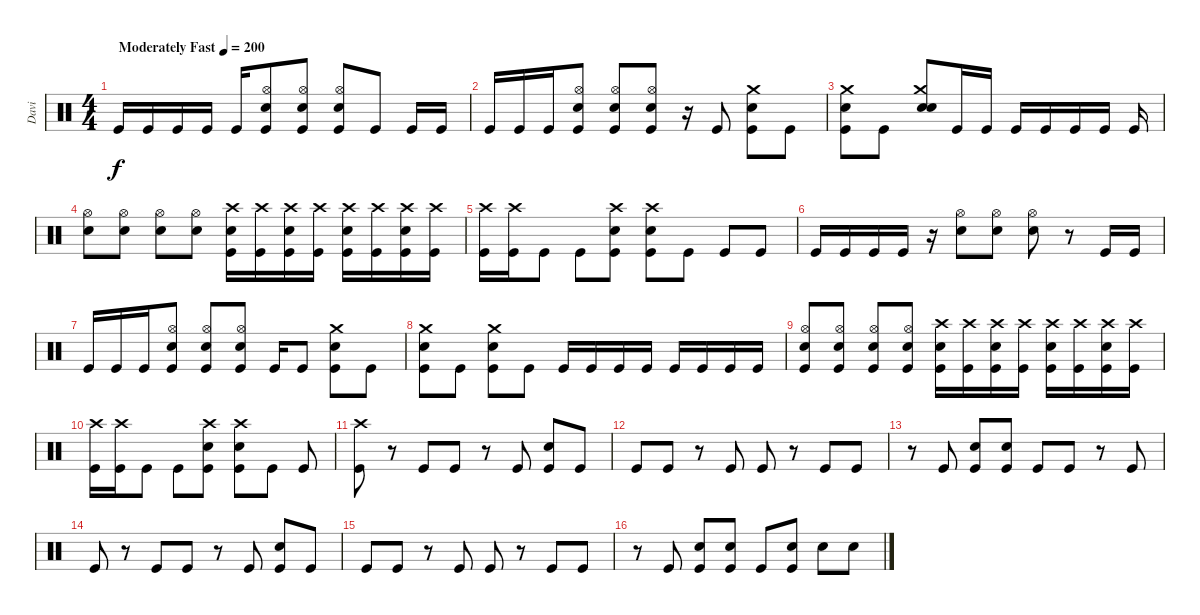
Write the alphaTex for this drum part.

\track ("Davi" "Davi") {instrument percussion}
\staff {score}
\articulation defaults
\ts (4 4)
\tempo (200 "Moderately Fast")
\clef neutral
\ks c "Kick (hit)".16{dy f} "Kick (hit)".16 "Kick (hit)".16 "Kick (hit)".16 "Kick (hit)".16
("Hi-Hat (open)" "Electric Snare (hit)" "Kick (hit)").8 ("Hi-Hat (open)" "Electric Snare (hit)" "Kick (hit)").8 ("Hi-Hat (open)" "Electric Snare (hit)" "Kick (hit)").8 "Kick (hit)".8 "Kick (hit)".16 "Kick (hit)".16 |
"Kick (hit)".16 "Kick (hit)".16 "Kick (hit)".16 ("Hi-Hat (open)" "Electric Snare (hit)" "Kick (hit)").8 ("Hi-Hat (open)" "Electric Snare (hit)" "Kick (hit)").8 ("Hi-Hat (open)" "Electric Snare (hit)" "Kick (hit)").8 r.16 "Kick (hit)".8 ("Crash medium (hit)" "Electric Snare (hit)" "Kick (hit)").8 "Kick (hit)".8 |
("Crash medium (hit)" "Electric Snare (hit)" "Kick (hit)").8 "Kick (hit)".8 ("Crash medium (hit)" "Electric Snare (hit)" "Snare (hit)").8 "Kick (hit)".16 "Kick (hit)".16 "Kick (hit)".16 "Kick (hit)".16 "Kick (hit)".16 "Kick (hit)".16 "Kick (hit)".16 |
("Hi-Hat (open)" "Electric Snare (hit)").8 ("Hi-Hat (open)" "Electric Snare (hit)").8 ("Hi-Hat (open)" "Electric Snare (hit)").8 ("Hi-Hat (open)" "Electric Snare (hit)").8 ("Crash high (hit)" "Electric Snare (hit)" "Kick (hit)").16 ("Crash high (hit)" "Kick (hit)").16 ("Crash high (hit)" "Electric Snare (hit)" "Kick (hit)").16 ("Crash high (hit)" "Kick (hit)").16 ("Crash high (hit)" "Electric Snare (hit)" "Kick (hit)").16 ("Crash high (hit)" "Kick (hit)").16 ("Crash high (hit)" "Electric Snare (hit)" "Kick (hit)").16 ("Crash high (hit)" "Kick (hit)").16 |
("Crash high (hit)" "Kick (hit)").16 ("Crash high (hit)" "Kick (hit)").16 "Kick (hit)".8 "Kick (hit)".8 ("Crash high (hit)" "Electric Snare (hit)" "Kick (hit)").8 ("Crash high (hit)" "Electric Snare (hit)" "Kick (hit)").8 "Kick (hit)".8 "Kick (hit)".8 "Kick (hit)".8 |
"Kick (hit)".16 "Kick (hit)".16 "Kick (hit)".16 "Kick (hit)".16 r.16 ("Hi-Hat (open)" "Electric Snare (hit)").8 ("Hi-Hat (open)" "Electric Snare (hit)").8 ("Hi-Hat (open)" "Electric Snare (hit)").8 r.8 "Kick (hit)".16 "Kick (hit)".16 |
"Kick (hit)".16 "Kick (hit)".16 "Kick (hit)".16 ("Hi-Hat (open)" "Electric Snare (hit)" "Kick (hit)").8 ("Hi-Hat (open)" "Electric Snare (hit)" "Kick (hit)").8 ("Hi-Hat (open)" "Electric Snare (hit)" "Kick (hit)").8 "Kick (hit)".16 "Kick (hit)".8 ("Crash medium (hit)" "Electric Snare (hit)" "Kick (hit)").8 "Kick (hit)".8 |
("Crash medium (hit)" "Electric Snare (hit)" "Kick (hit)").8 "Kick (hit)".8 ("Crash medium (hit)" "Electric Snare (hit)" "Kick (hit)").8 "Kick (hit)".8 "Kick (hit)".16 "Kick (hit)".16 "Kick (hit)".16 "Kick (hit)".16 "Kick (hit)".16 "Kick (hit)".16 "Kick (hit)".16 "Kick (hit)".16 |
("Hi-Hat (open)" "Electric Snare (hit)" "Kick (hit)").8 ("Hi-Hat (open)" "Electric Snare (hit)" "Kick (hit)").8 ("Hi-Hat (open)" "Electric Snare (hit)" "Kick (hit)").8 ("Hi-Hat (open)" "Electric Snare (hit)" "Kick (hit)").8 ("Crash high (hit)" "Electric Snare (hit)" "Kick (hit)").16 ("Crash high (hit)" "Kick (hit)").16 ("Crash high (hit)" "Electric Snare (hit)" "Kick (hit)").16 ("Crash high (hit)" "Kick (hit)").16 ("Crash high (hit)" "Electric Snare (hit)" "Kick (hit)").16 ("Crash high (hit)" "Kick (hit)").16 ("Crash high (hit)" "Electric Snare (hit)" "Kick (hit)").16 ("Crash high (hit)" "Kick (hit)").16 |
("Crash high (hit)" "Kick (hit)").16 ("Crash high (hit)" "Kick (hit)").16 "Kick (hit)".8 "Kick (hit)".8 ("Crash high (hit)" "Electric Snare (hit)" "Kick (hit)").8 ("Crash high (hit)" "Electric Snare (hit)" "Kick (hit)").8 "Kick (hit)".8 "Kick (hit)".8 |
("Crash high (hit)" "Kick (hit)").8 r.8 "Kick (hit)".8 "Kick (hit)".8 r.8 "Kick (hit)".8 ("Electric Snare (hit)" "Kick (hit)").8 "Kick (hit)".8 |
"Kick (hit)".8 "Kick (hit)".8 r.8 "Kick (hit)".8 "Kick (hit)".8 r.8 "Kick (hit)".8 "Kick (hit)".8 |
r.8 "Kick (hit)".8 ("Electric Snare (hit)" "Kick (hit)").8 ("Electric Snare (hit)" "Kick (hit)").8 "Kick (hit)".8 "Kick (hit)".8 r.8 "Kick (hit)".8 |
"Kick (hit)".8 r.8 "Kick (hit)".8 "Kick (hit)".8 r.8 "Kick (hit)".8 ("Electric Snare (hit)" "Kick (hit)").8 "Kick (hit)".8 |
"Kick (hit)".8 "Kick (hit)".8 r.8 "Kick (hit)".8 "Kick (hit)".8 r.8 "Kick (hit)".8 "Kick (hit)".8 |
r.8 "Kick (hit)".8 ("Electric Snare (hit)" "Kick (hit)").8 ("Electric Snare (hit)" "Kick (hit)").8 "Kick (hit)".8 ("Electric Snare (hit)" "Kick (hit)").8 "Electric Snare (hit)".8 "Electric Snare (hit)".8
